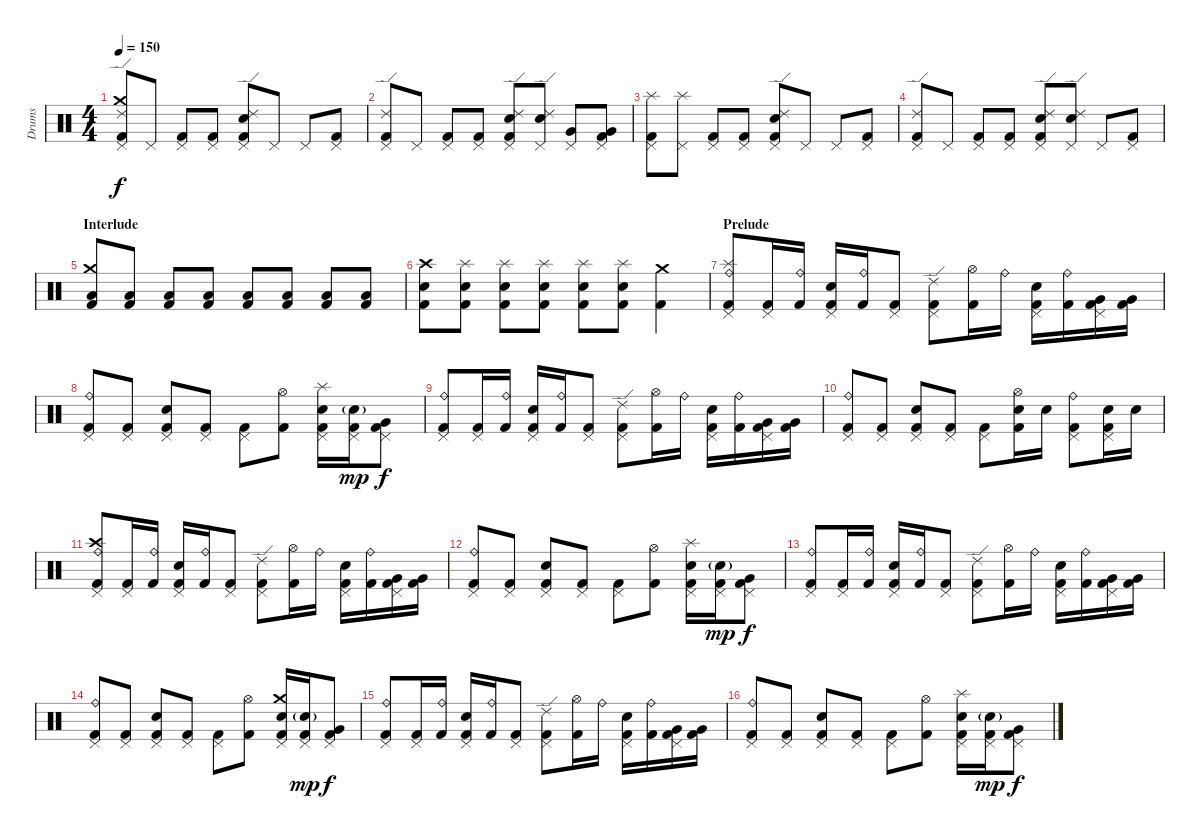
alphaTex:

\track ("Drums" "Drums") {instrument percussion}
\staff {score}
\articulation defaults
\ts (4 4)
\tempo 150
\clef neutral
\ks c
("Kick (hit) 2" "Crash medium (hit)" "Ride (edge) 2" "Pedal Hi-Hat (hit)").8{dy f} "Pedal Hi-Hat (hit)".8 ("Kick (hit) 2" "Pedal Hi-Hat (hit)").8 ("Kick (hit) 2" "Pedal Hi-Hat (hit)").8 ("Kick (hit) 2" "Snare (hit) 2" "Ride (edge) 2" "Pedal Hi-Hat (hit)").8 "Pedal Hi-Hat (hit)".8 "Pedal Hi-Hat (hit)".8 ("Kick (hit) 2" "Pedal Hi-Hat (hit)").8 |
("Kick (hit) 2" "Ride (edge) 2" "Pedal Hi-Hat (hit)").8 "Pedal Hi-Hat (hit)".8 ("Kick (hit) 2" "Pedal Hi-Hat (hit)").8 ("Kick (hit) 2" "Pedal Hi-Hat (hit)").8 ("Kick (hit) 2" "Snare (hit) 2" "Ride (edge) 2" "Pedal Hi-Hat (hit)").8 ("Snare (hit) 2" "Ride (edge) 2" "Pedal Hi-Hat (hit)").8 ("Very Low Tom (hit)" "Pedal Hi-Hat (hit)").8 ("Kick (hit) 2" "Very Low Tom (hit)" "Pedal Hi-Hat (hit)").8 |
("Kick (hit) 2" "Splash (hit)" "Pedal Hi-Hat (hit)").8 ("Splash (hit)" "Pedal Hi-Hat (hit)").8 ("Kick (hit) 2" "Pedal Hi-Hat (hit)").8 ("Kick (hit) 2" "Pedal Hi-Hat (hit)").8 ("Kick (hit) 2" "Snare (hit) 2" "Ride (edge) 2" "Pedal Hi-Hat (hit)").8 "Pedal Hi-Hat (hit)".8 "Pedal Hi-Hat (hit)".8 ("Kick (hit) 2" "Pedal Hi-Hat (hit)").8 |
("Kick (hit) 2" "Ride (edge) 2" "Pedal Hi-Hat (hit)").8 "Pedal Hi-Hat (hit)".8 ("Kick (hit) 2" "Pedal Hi-Hat (hit)").8 ("Kick (hit) 2" "Pedal Hi-Hat (hit)").8 ("Kick (hit) 2" "Snare (hit) 2" "Ride (edge) 2" "Pedal Hi-Hat (hit)").8 ("Snare (hit) 2" "Ride (edge) 2" "Pedal Hi-Hat (hit)").8 "Pedal Hi-Hat (hit)".8 ("Kick (hit) 2" "Pedal Hi-Hat (hit)").8 |
\section ("" "Interlude")
("Kick (hit) 2" "Low Tom (hit)" "Crash medium (hit)").8 ("Kick (hit) 2" "Low Tom (hit)").8 ("Kick (hit) 2" "Low Tom (hit)").8 ("Kick (hit) 2" "Low Tom (hit)").8 ("Kick (hit) 2" "Low Tom (hit)").8 ("Kick (hit) 2" "Low Tom (hit)").8 ("Kick (hit) 2" "Low Tom (hit)").8 ("Kick (hit) 2" "Low Tom (hit)").8 |
("Kick (hit) 2" "Snare (hit) 2" "Crash high (hit)").8 ("Kick (hit) 2" "Snare (hit) 2" "Splash (hit)").8 ("Kick (hit) 2" "Snare (hit) 2" "Splash (hit)").8 ("Kick (hit) 2" "Snare (hit) 2" "Splash (hit)").8 ("Kick (hit) 2" "Snare (hit) 2" "Splash (hit)").8 ("Kick (hit) 2" "Snare (hit) 2" "Splash (hit)").8 ("Kick (hit) 2" "Crash medium (hit)").4 |
\section ("" "Prelude")
("Kick (hit) 2" "Splash (hit)" "Ride (bell)" "Pedal Hi-Hat (hit)").8 ("Kick (hit) 2" "Pedal Hi-Hat (hit)").16 ("Kick (hit) 2" "Ride (bell)").16 ("Kick (hit) 2" "Snare (hit) 2" "Pedal Hi-Hat (hit)").16 ("Kick (hit) 2" "Ride (bell)").16 ("Kick (hit) 2" "Pedal Hi-Hat (hit)").8 ("Kick (hit) 2" "Ride (edge) 2" "Pedal Hi-Hat (hit)").8 ("Kick (hit) 2" "Hi-Hat (open)").16 "Ride (bell)".16 ("Kick (hit) 2" "Snare (hit) 2" "Pedal Hi-Hat (hit)").16 ("Kick (hit) 2" "Ride (bell)").16 ("Kick (hit) 2" "Very Low Tom (hit)" "Pedal Hi-Hat (hit)").16 ("Kick (hit) 2" "Very Low Tom (hit)").16 |
("Kick (hit) 2" "Ride (bell)" "Pedal Hi-Hat (hit)").8 ("Kick (hit) 2" "Pedal Hi-Hat (hit)").8 ("Kick (hit) 2" "Snare (hit) 2" "Pedal Hi-Hat (hit)").8 ("Kick (hit) 2" "Pedal Hi-Hat (hit)").8 ("Kick (hit) 2" "Pedal Hi-Hat (hit)").8 ("Kick (hit) 2" "Hi-Hat (open)").8 ("Kick (hit) 2" "Splash (hit)" "Snare (hit) 2" "Pedal Hi-Hat (hit)").16 ("Kick (hit) 2" "Snare (hit) 2"{g} "Pedal Hi-Hat (hit)").16{dy mp} ("Kick (hit) 2" "Very Low Tom (hit)" "Pedal Hi-Hat (hit)").8{dy f} |
("Kick (hit) 2" "Ride (bell)" "Pedal Hi-Hat (hit)").8 ("Kick (hit) 2" "Pedal Hi-Hat (hit)").16 ("Kick (hit) 2" "Ride (bell)").16 ("Kick (hit) 2" "Snare (hit) 2" "Pedal Hi-Hat (hit)").16 ("Kick (hit) 2" "Ride (bell)").16 ("Kick (hit) 2" "Pedal Hi-Hat (hit)").8 ("Kick (hit) 2" "Ride (edge) 2" "Pedal Hi-Hat (hit)").8 ("Kick (hit) 2" "Hi-Hat (open)").16 "Ride (bell)".16 ("Kick (hit) 2" "Snare (hit) 2" "Pedal Hi-Hat (hit)").16 ("Kick (hit) 2" "Ride (bell)").16 ("Kick (hit) 2" "Very Low Tom (hit)" "Pedal Hi-Hat (hit)").16 ("Kick (hit) 2" "Very Low Tom (hit)").16 |
("Kick (hit) 2" "Ride (bell)" "Pedal Hi-Hat (hit)").8 ("Kick (hit) 2" "Pedal Hi-Hat (hit)").8 ("Kick (hit) 2" "Snare (hit) 2" "Pedal Hi-Hat (hit)").8 ("Kick (hit) 2" "Pedal Hi-Hat (hit)").8 ("Kick (hit) 2" "Pedal Hi-Hat (hit)").8 ("Kick (hit) 2" "Snare (hit) 2" "Hi-Hat (open)").16 "Snare (hit) 2".16 ("Kick (hit) 2" "Ride (bell)" "Pedal Hi-Hat (hit)").8 ("Kick (hit) 2" "Snare (hit) 2" "Pedal Hi-Hat (hit)").16 "Snare (hit) 2".16 |
("Kick (hit) 2" "Crash high (hit)" "Ride (bell)" "Pedal Hi-Hat (hit)").8 ("Kick (hit) 2" "Pedal Hi-Hat (hit)").16 ("Kick (hit) 2" "Ride (bell)").16 ("Kick (hit) 2" "Snare (hit) 2" "Pedal Hi-Hat (hit)").16 ("Kick (hit) 2" "Ride (bell)").16 ("Kick (hit) 2" "Pedal Hi-Hat (hit)").8 ("Kick (hit) 2" "Ride (edge) 2" "Pedal Hi-Hat (hit)").8 ("Kick (hit) 2" "Hi-Hat (open)").16 "Ride (bell)".16 ("Kick (hit) 2" "Snare (hit) 2" "Pedal Hi-Hat (hit)").16 ("Kick (hit) 2" "Ride (bell)").16 ("Kick (hit) 2" "Very Low Tom (hit)" "Pedal Hi-Hat (hit)").16 ("Kick (hit) 2" "Very Low Tom (hit)").16 |
("Kick (hit) 2" "Ride (bell)" "Pedal Hi-Hat (hit)").8 ("Kick (hit) 2" "Pedal Hi-Hat (hit)").8 ("Kick (hit) 2" "Snare (hit) 2" "Pedal Hi-Hat (hit)").8 ("Kick (hit) 2" "Pedal Hi-Hat (hit)").8 ("Kick (hit) 2" "Pedal Hi-Hat (hit)").8 ("Kick (hit) 2" "Hi-Hat (open)").8 ("Kick (hit) 2" "Splash (hit)" "Snare (hit) 2" "Pedal Hi-Hat (hit)").16 ("Kick (hit) 2" "Snare (hit) 2"{g} "Pedal Hi-Hat (hit)").16{dy mp} ("Kick (hit) 2" "Very Low Tom (hit)" "Pedal Hi-Hat (hit)").8{dy f} |
("Kick (hit) 2" "Ride (bell)" "Pedal Hi-Hat (hit)").8 ("Kick (hit) 2" "Pedal Hi-Hat (hit)").16 ("Kick (hit) 2" "Ride (bell)").16 ("Kick (hit) 2" "Snare (hit) 2" "Pedal Hi-Hat (hit)").16 ("Kick (hit) 2" "Ride (bell)").16 ("Kick (hit) 2" "Pedal Hi-Hat (hit)").8 ("Kick (hit) 2" "Ride (edge) 2" "Pedal Hi-Hat (hit)").8 ("Kick (hit) 2" "Hi-Hat (open)").16 "Ride (bell)".16 ("Kick (hit) 2" "Snare (hit) 2" "Pedal Hi-Hat (hit)").16 ("Kick (hit) 2" "Ride (bell)").16 ("Kick (hit) 2" "Very Low Tom (hit)" "Pedal Hi-Hat (hit)").16 ("Kick (hit) 2" "Very Low Tom (hit)").16 |
("Kick (hit) 2" "Ride (bell)" "Pedal Hi-Hat (hit)").8 ("Kick (hit) 2" "Pedal Hi-Hat (hit)").8 ("Kick (hit) 2" "Snare (hit) 2" "Pedal Hi-Hat (hit)").8 ("Kick (hit) 2" "Pedal Hi-Hat (hit)").8 ("Kick (hit) 2" "Pedal Hi-Hat (hit)").8 ("Kick (hit) 2" "Hi-Hat (open)").8 ("Kick (hit) 2" "Crash medium (hit)" "Snare (hit) 2" "Pedal Hi-Hat (hit)").16 ("Kick (hit) 2" "Snare (hit) 2"{g} "Pedal Hi-Hat (hit)").16{dy mp} ("Kick (hit) 2" "Very Low Tom (hit)" "Pedal Hi-Hat (hit)").8{dy f} |
("Kick (hit) 2" "Ride (bell)" "Pedal Hi-Hat (hit)").8 ("Kick (hit) 2" "Pedal Hi-Hat (hit)").16 ("Kick (hit) 2" "Ride (bell)").16 ("Kick (hit) 2" "Snare (hit) 2" "Pedal Hi-Hat (hit)").16 ("Kick (hit) 2" "Ride (bell)").16 ("Kick (hit) 2" "Pedal Hi-Hat (hit)").8 ("Kick (hit) 2" "Ride (edge) 2" "Pedal Hi-Hat (hit)").8 ("Kick (hit) 2" "Hi-Hat (open)").16 "Ride (bell)".16 ("Kick (hit) 2" "Snare (hit) 2" "Pedal Hi-Hat (hit)").16 ("Kick (hit) 2" "Ride (bell)").16 ("Kick (hit) 2" "Very Low Tom (hit)" "Pedal Hi-Hat (hit)").16 ("Kick (hit) 2" "Very Low Tom (hit)").16 |
("Kick (hit) 2" "Ride (bell)" "Pedal Hi-Hat (hit)").8 ("Kick (hit) 2" "Pedal Hi-Hat (hit)").8 ("Kick (hit) 2" "Snare (hit) 2" "Pedal Hi-Hat (hit)").8 ("Kick (hit) 2" "Pedal Hi-Hat (hit)").8 ("Kick (hit) 2" "Pedal Hi-Hat (hit)").8 ("Kick (hit) 2" "Hi-Hat (open)").8 ("Kick (hit) 2" "Splash (hit)" "Snare (hit) 2" "Pedal Hi-Hat (hit)").16 ("Kick (hit) 2" "Snare (hit) 2"{g} "Pedal Hi-Hat (hit)").16{dy mp} ("Kick (hit) 2" "Very Low Tom (hit)" "Pedal Hi-Hat (hit)").8{dy f}
